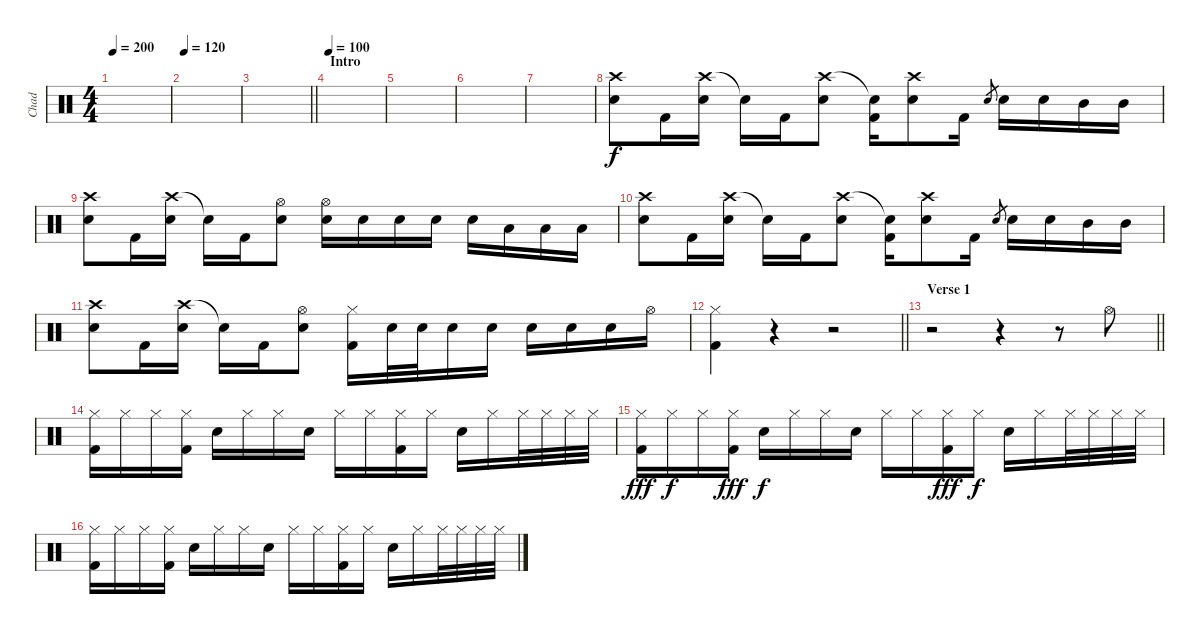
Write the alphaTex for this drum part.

\track ("Chad" "Chad") {instrument percussion}
\staff {score}
\articulation defaults
\ts (4 4)
\tempo 200
\clef neutral
\ks c
|
\tempo 120
|
\barLineRight lightlight
|
\section ("" "Intro")
\tempo 100
|
|
|
|
("Crash high (hit)" "Electric Snare (hit)").8 "Kick (hit) 2".16 ("Crash high (hit)" "Electric Snare (hit)").16 "Snare (hit)"{t}.16 "Kick (hit) 2".16 ("Crash high (hit)" "Electric Snare (hit)").8 ("Snare (hit)"{t} "Kick (hit) 2").16 ("Crash high (hit)" "Electric Snare (hit)").8 "Kick (hit) 2".16 "Electric Snare (hit)".8{gr} "Electric Snare (hit)".16 "Electric Snare (hit)".16 "Mid Tom (hit)".16 "Mid Tom (hit)".16 |
("Crash high (hit)" "Electric Snare (hit)").8 "Kick (hit) 2".16 ("Crash high (hit)" "Electric Snare (hit)").16 "Snare (hit)"{t}.16 "Kick (hit) 2".16 ("Hi-Hat (open)" "Electric Snare (hit)").8 ("Hi-Hat (open)" "Electric Snare (hit)").16 "Electric Snare (hit)".16 "Electric Snare (hit)".16 "Electric Snare (hit)".16 "Electric Snare (hit)".16 "Low Tom (hit)".16 "Low Tom (hit)".16 "Low Tom (hit)".16 |
("Crash high (hit)" "Electric Snare (hit)").8 "Kick (hit) 2".16 ("Crash high (hit)" "Electric Snare (hit)").16 "Snare (hit)"{t}.16 "Kick (hit) 2".16 ("Crash high (hit)" "Electric Snare (hit)").8 ("Snare (hit)"{t} "Kick (hit) 2").16 ("Crash high (hit)" "Electric Snare (hit)").8 "Kick (hit) 2".16 "Electric Snare (hit)".8{gr} "Electric Snare (hit)".16 "Electric Snare (hit)".16 "Mid Tom (hit)".16 "Mid Tom (hit)".16 |
("Crash high (hit)" "Electric Snare (hit)").8 "Kick (hit) 2".16 ("Crash high (hit)" "Electric Snare (hit)").16 "Snare (hit)"{t}.16 "Kick (hit) 2".16 ("Hi-Hat (open)" "Electric Snare (hit)").8 ("Hi-Hat (closed)" "Kick (hit) 2").16 "Electric Snare (hit)".32 "Electric Snare (hit)".32 "Electric Snare (hit)".16 "Electric Snare (hit)".16 "Electric Snare (hit)".16 "Electric Snare (hit)".16 "Electric Snare (hit)".16 "Hi-Hat (open)".16 |
\barLineRight lightlight
("Hi-Hat (closed)" "Kick (hit) 2").4 r.4 r.2 |
\section ("" "Verse 1")
\barLineRight lightlight
r.2 r.4 r.8 "Hi-Hat (open)".8 |
("Hi-Hat (closed)" "Kick (hit) 2").16 "Hi-Hat (closed)".16 "Hi-Hat (closed)".16 ("Hi-Hat (closed)" "Kick (hit) 2").16 "Electric Snare (hit)".16 "Hi-Hat (closed)".16 "Hi-Hat (closed)".16 "Electric Snare (hit)".16 "Hi-Hat (closed)".16 "Hi-Hat (closed)".16 ("Hi-Hat (closed)" "Kick (hit) 2").16 "Hi-Hat (closed)".16 "Electric Snare (hit)".16 "Hi-Hat (closed)".16 "Hi-Hat (closed)".32 "Hi-Hat (closed)".32 "Hi-Hat (closed)".32 "Hi-Hat (closed)".32 |
("Hi-Hat (closed)" "Kick (hit) 2").16{dy fff} "Hi-Hat (closed)".16{dy f} "Hi-Hat (closed)".16 ("Hi-Hat (closed)" "Kick (hit) 2").16{dy fff} "Electric Snare (hit)".16{dy f} "Hi-Hat (closed)".16 "Hi-Hat (closed)".16 "Electric Snare (hit)".16 "Hi-Hat (closed)".16 "Hi-Hat (closed)".16 ("Hi-Hat (closed)" "Kick (hit) 2").16{dy fff} "Hi-Hat (closed)".16{dy f} "Electric Snare (hit)".16 "Hi-Hat (closed)".16 "Hi-Hat (closed)".32 "Hi-Hat (closed)".32 "Hi-Hat (closed)".32 "Hi-Hat (closed)".32 |
("Hi-Hat (closed)" "Kick (hit) 2").16 "Hi-Hat (closed)".16 "Hi-Hat (closed)".16 ("Hi-Hat (closed)" "Kick (hit) 2").16 "Electric Snare (hit)".16 "Hi-Hat (closed)".16 "Hi-Hat (closed)".16 "Electric Snare (hit)".16 "Hi-Hat (closed)".16 "Hi-Hat (closed)".16 ("Hi-Hat (closed)" "Kick (hit) 2").16 "Hi-Hat (closed)".16 "Electric Snare (hit)".16 "Hi-Hat (closed)".16 "Hi-Hat (closed)".32 "Hi-Hat (closed)".32 "Hi-Hat (closed)".32 "Hi-Hat (closed)".32
